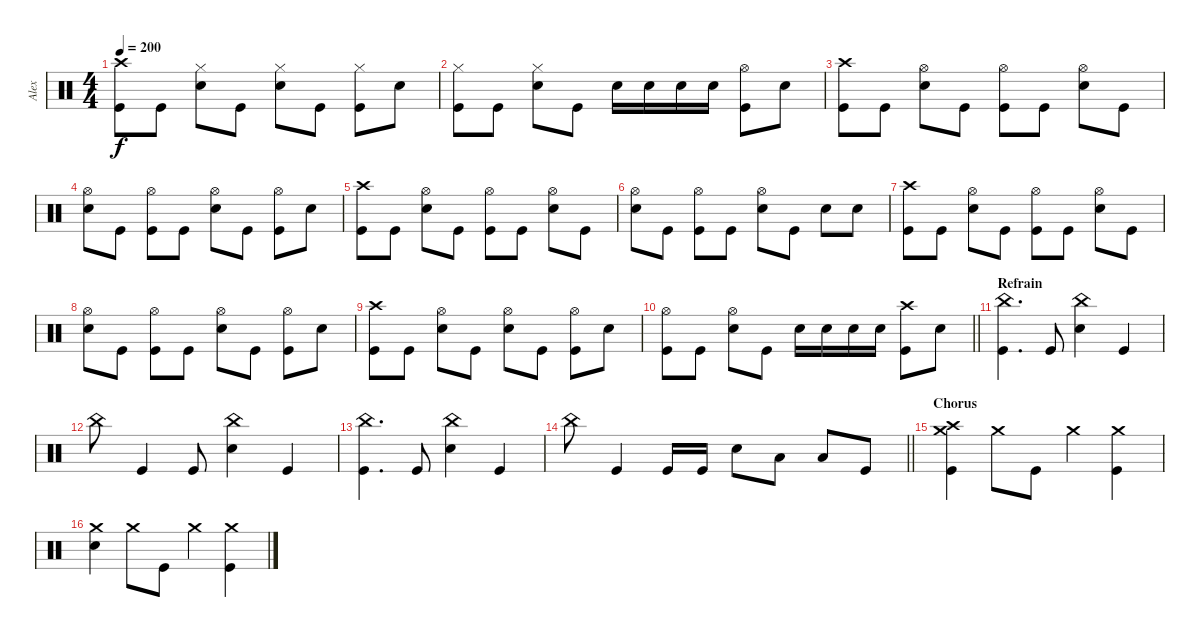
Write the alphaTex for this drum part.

\track ("Alex" "Alex") {instrument percussion}
\staff {score}
\articulation defaults
\ts (4 4)
\tempo 200
\clef neutral
\ks c
("Crash high (hit)" "Kick (hit)").8{dy f} "Kick (hit)".8 ("Hi-Hat (closed)" "Snare (hit) 2").8 "Kick (hit)".8 ("Hi-Hat (closed)" "Snare (hit) 2").8 "Kick (hit)".8 ("Hi-Hat (closed)" "Kick (hit)").8 "Snare (hit) 2".8 |
("Hi-Hat (closed)" "Kick (hit)").8 "Kick (hit)".8 ("Hi-Hat (closed)" "Snare (hit) 2").8 "Kick (hit)".8 "Snare (hit) 2".16 "Snare (hit) 2".16 "Snare (hit) 2".16 "Snare (hit) 2".16 ("Hi-Hat (open)" "Kick (hit)").8 "Snare (hit) 2".8 |
("Crash high (hit)" "Kick (hit)").8 "Kick (hit)".8 ("Hi-Hat (open)" "Snare (hit) 2").8 "Kick (hit)".8 ("Hi-Hat (open)" "Kick (hit)").8 "Kick (hit)".8 ("Hi-Hat (open)" "Snare (hit) 2").8 "Kick (hit)".8 |
("Hi-Hat (open)" "Snare (hit) 2").8 "Kick (hit)".8 ("Hi-Hat (open)" "Kick (hit)").8 "Kick (hit)".8 ("Hi-Hat (open)" "Snare (hit) 2").8 "Kick (hit)".8 ("Hi-Hat (open)" "Kick (hit)").8 "Snare (hit) 2".8 |
("Crash high (hit)" "Kick (hit)").8 "Kick (hit)".8 ("Hi-Hat (open)" "Snare (hit) 2").8 "Kick (hit)".8 ("Hi-Hat (open)" "Kick (hit)").8 "Kick (hit)".8 ("Hi-Hat (open)" "Snare (hit) 2").8 "Kick (hit)".8 |
("Hi-Hat (open)" "Snare (hit) 2").8 "Kick (hit)".8 ("Hi-Hat (open)" "Kick (hit)").8 "Kick (hit)".8 ("Hi-Hat (open)" "Snare (hit) 2").8 "Kick (hit)".8 "Snare (hit) 2".8 "Snare (hit) 2".8 |
("Crash high (hit)" "Kick (hit)").8 "Kick (hit)".8 ("Hi-Hat (open)" "Snare (hit) 2").8 "Kick (hit)".8 ("Hi-Hat (open)" "Kick (hit)").8 "Kick (hit)".8 ("Hi-Hat (open)" "Snare (hit) 2").8 "Kick (hit)".8 |
("Hi-Hat (open)" "Snare (hit) 2").8 "Kick (hit)".8 ("Hi-Hat (open)" "Kick (hit)").8 "Kick (hit)".8 ("Hi-Hat (open)" "Snare (hit) 2").8 "Kick (hit)".8 ("Hi-Hat (open)" "Kick (hit)").8 "Snare (hit) 2".8 |
("Crash high (hit)" "Kick (hit)").8 "Kick (hit)".8 ("Hi-Hat (open)" "Snare (hit) 2").8 "Kick (hit)".8 ("Hi-Hat (open)" "Snare (hit) 2").8 "Kick (hit)".8 ("Hi-Hat (open)" "Kick (hit)").8 "Snare (hit) 2".8 |
\barLineRight lightlight
("Hi-Hat (open)" "Kick (hit)").8 "Kick (hit)".8 ("Hi-Hat (open)" "Snare (hit) 2").8 "Kick (hit)".8 "Snare (hit) 2".16 "Snare (hit) 2".16 "Snare (hit) 2".16 "Snare (hit) 2".16 ("Crash high (hit)" "Kick (hit)").8 "Snare (hit) 2".8 |
\section ("" "Refrain")
("China (hit)" "Kick (hit)").4{d} "Kick (hit)".8 ("China (hit)" "Snare (hit) 2").4 "Kick (hit)".4 |
"China (hit)".8 "Kick (hit)".4 "Kick (hit)".8 ("China (hit)" "Snare (hit) 2").4 "Kick (hit)".4 |
("China (hit)" "Kick (hit)").4{d} "Kick (hit)".8 ("China (hit)" "Snare (hit) 2").4 "Kick (hit)".4 |
\barLineRight lightlight "China (hit)".8 "Kick (hit)".4 "Kick (hit)".16 "Kick (hit)".16 "Snare (hit) 2".8 "Low Tom (hit)".8 "Low Tom (hit)".8 "Kick (hit)".8
|
\section ("" "Chorus")
("Crash medium (hit)" "Crash high (hit)" "Kick (hit)").4 "Crash medium (hit)".8 "Kick (hit)".8 "Crash medium (hit)".4 ("Crash medium (hit)" "Kick (hit)").4 |
("Crash medium (hit)" "Snare (hit) 2").4 "Crash medium (hit)".8 "Kick (hit)".8 "Crash medium (hit)".4 ("Crash medium (hit)" "Kick (hit)").4
